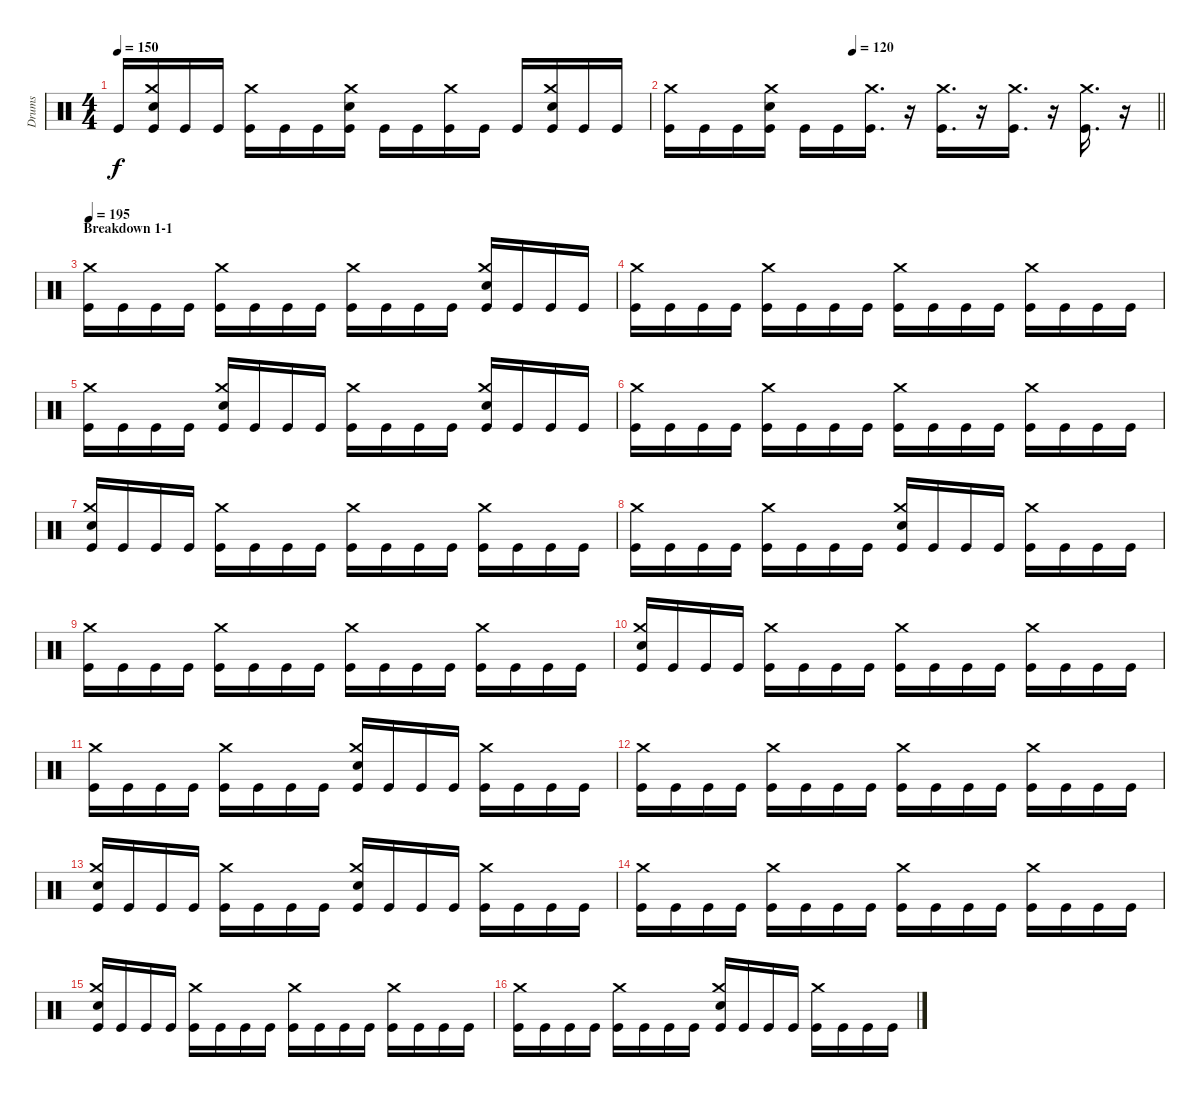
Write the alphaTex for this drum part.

\track ("Drums" "Drums") {instrument percussion}
\staff {score}
\articulation defaults
\ts (4 4)
\tempo 150
\clef neutral
\ks c "Kick (hit)".16{dy f}
("Crash medium (hit)" "Snare (hit) 2" "Kick (hit)").16 "Kick (hit)".16 "Kick (hit)".16 ("Crash medium (hit)" "Kick (hit)").16 "Kick (hit)".16 "Kick (hit)".16 ("Crash medium (hit)" "Snare (hit) 2" "Kick (hit)").16 "Kick (hit)".16 "Kick (hit)".16 ("Crash medium (hit)" "Kick (hit)").16 "Kick (hit)".16 "Kick (hit)".16 ("Crash medium (hit)" "Snare (hit) 2" "Kick (hit)").16 "Kick (hit)".16 "Kick (hit)".16 |
\tempo (120 0.375)
\barLineRight lightlight
("Crash medium (hit)" "Kick (hit)").16 "Kick (hit)".16 "Kick (hit)".16 ("Crash medium (hit)" "Snare (hit) 2" "Kick (hit)").16 "Kick (hit)".16 "Kick (hit)".16 ("Crash medium (hit)" "Kick (hit)").16{d} r.16 ("Crash medium (hit)" "Kick (hit)").16{d} r.16 ("Crash medium (hit)" "Kick (hit)").16{d} r.16 ("Crash medium (hit)" "Kick (hit)").16{d} r.16 |
\section ("" "Breakdown 1-1")
\tempo 195
("Crash medium (hit)" "Kick (hit)").16 "Kick (hit)".16 "Kick (hit)".16 "Kick (hit)".16 ("Crash medium (hit)" "Kick (hit)").16 "Kick (hit)".16 "Kick (hit)".16 "Kick (hit)".16 ("Crash medium (hit)" "Kick (hit)").16 "Kick (hit)".16 "Kick (hit)".16 "Kick (hit)".16 ("Crash medium (hit)" "Snare (hit) 2" "Kick (hit)").16 "Kick (hit)".16 "Kick (hit)".16 "Kick (hit)".16 |
("Crash medium (hit)" "Kick (hit)").16 "Kick (hit)".16 "Kick (hit)".16 "Kick (hit)".16 ("Crash medium (hit)" "Kick (hit)").16 "Kick (hit)".16 "Kick (hit)".16 "Kick (hit)".16 ("Crash medium (hit)" "Kick (hit)").16 "Kick (hit)".16 "Kick (hit)".16 "Kick (hit)".16 ("Crash medium (hit)" "Kick (hit)").16 "Kick (hit)".16 "Kick (hit)".16 "Kick (hit)".16 |
("Crash medium (hit)" "Kick (hit)").16 "Kick (hit)".16 "Kick (hit)".16 "Kick (hit)".16 ("Crash medium (hit)" "Snare (hit) 2" "Kick (hit)").16 "Kick (hit)".16 "Kick (hit)".16 "Kick (hit)".16 ("Crash medium (hit)" "Kick (hit)").16 "Kick (hit)".16 "Kick (hit)".16 "Kick (hit)".16 ("Crash medium (hit)" "Snare (hit) 2" "Kick (hit)").16 "Kick (hit)".16 "Kick (hit)".16 "Kick (hit)".16 |
("Crash medium (hit)" "Kick (hit)").16 "Kick (hit)".16 "Kick (hit)".16 "Kick (hit)".16 ("Crash medium (hit)" "Kick (hit)").16 "Kick (hit)".16 "Kick (hit)".16 "Kick (hit)".16 ("Crash medium (hit)" "Kick (hit)").16 "Kick (hit)".16 "Kick (hit)".16 "Kick (hit)".16 ("Crash medium (hit)" "Kick (hit)").16 "Kick (hit)".16 "Kick (hit)".16 "Kick (hit)".16 |
("Crash medium (hit)" "Snare (hit) 2" "Kick (hit)").16 "Kick (hit)".16 "Kick (hit)".16 "Kick (hit)".16 ("Crash medium (hit)" "Kick (hit)").16 "Kick (hit)".16 "Kick (hit)".16 "Kick (hit)".16 ("Crash medium (hit)" "Kick (hit)").16 "Kick (hit)".16 "Kick (hit)".16 "Kick (hit)".16 ("Crash medium (hit)" "Kick (hit)").16 "Kick (hit)".16 "Kick (hit)".16 "Kick (hit)".16 |
("Crash medium (hit)" "Kick (hit)").16 "Kick (hit)".16 "Kick (hit)".16 "Kick (hit)".16 ("Crash medium (hit)" "Kick (hit)").16 "Kick (hit)".16 "Kick (hit)".16 "Kick (hit)".16 ("Crash medium (hit)" "Snare (hit) 2" "Kick (hit)").16 "Kick (hit)".16 "Kick (hit)".16 "Kick (hit)".16 ("Crash medium (hit)" "Kick (hit)").16 "Kick (hit)".16 "Kick (hit)".16 "Kick (hit)".16 |
("Crash medium (hit)" "Kick (hit)").16 "Kick (hit)".16 "Kick (hit)".16 "Kick (hit)".16 ("Crash medium (hit)" "Kick (hit)").16 "Kick (hit)".16 "Kick (hit)".16 "Kick (hit)".16 ("Crash medium (hit)" "Kick (hit)").16 "Kick (hit)".16 "Kick (hit)".16 "Kick (hit)".16 ("Crash medium (hit)" "Kick (hit)").16 "Kick (hit)".16 "Kick (hit)".16 "Kick (hit)".16 |
("Crash medium (hit)" "Snare (hit) 2" "Kick (hit)").16 "Kick (hit)".16 "Kick (hit)".16 "Kick (hit)".16 ("Crash medium (hit)" "Kick (hit)").16 "Kick (hit)".16 "Kick (hit)".16 "Kick (hit)".16 ("Crash medium (hit)" "Kick (hit)").16 "Kick (hit)".16 "Kick (hit)".16 "Kick (hit)".16 ("Crash medium (hit)" "Kick (hit)").16 "Kick (hit)".16 "Kick (hit)".16 "Kick (hit)".16 |
("Crash medium (hit)" "Kick (hit)").16 "Kick (hit)".16 "Kick (hit)".16 "Kick (hit)".16 ("Crash medium (hit)" "Kick (hit)").16 "Kick (hit)".16 "Kick (hit)".16 "Kick (hit)".16 ("Crash medium (hit)" "Snare (hit) 2" "Kick (hit)").16 "Kick (hit)".16 "Kick (hit)".16 "Kick (hit)".16 ("Crash medium (hit)" "Kick (hit)").16 "Kick (hit)".16 "Kick (hit)".16 "Kick (hit)".16 |
("Crash medium (hit)" "Kick (hit)").16 "Kick (hit)".16 "Kick (hit)".16 "Kick (hit)".16 ("Crash medium (hit)" "Kick (hit)").16 "Kick (hit)".16 "Kick (hit)".16 "Kick (hit)".16 ("Crash medium (hit)" "Kick (hit)").16 "Kick (hit)".16 "Kick (hit)".16 "Kick (hit)".16 ("Crash medium (hit)" "Kick (hit)").16 "Kick (hit)".16 "Kick (hit)".16 "Kick (hit)".16 |
("Crash medium (hit)" "Snare (hit) 2" "Kick (hit)").16 "Kick (hit)".16 "Kick (hit)".16 "Kick (hit)".16 ("Crash medium (hit)" "Kick (hit)").16 "Kick (hit)".16 "Kick (hit)".16 "Kick (hit)".16 ("Crash medium (hit)" "Snare (hit) 2" "Kick (hit)").16 "Kick (hit)".16 "Kick (hit)".16 "Kick (hit)".16 ("Crash medium (hit)" "Kick (hit)").16 "Kick (hit)".16 "Kick (hit)".16 "Kick (hit)".16 |
("Crash medium (hit)" "Kick (hit)").16 "Kick (hit)".16 "Kick (hit)".16 "Kick (hit)".16 ("Crash medium (hit)" "Kick (hit)").16 "Kick (hit)".16 "Kick (hit)".16 "Kick (hit)".16 ("Crash medium (hit)" "Kick (hit)").16 "Kick (hit)".16 "Kick (hit)".16 "Kick (hit)".16 ("Crash medium (hit)" "Kick (hit)").16 "Kick (hit)".16 "Kick (hit)".16 "Kick (hit)".16 |
("Crash medium (hit)" "Snare (hit) 2" "Kick (hit)").16 "Kick (hit)".16 "Kick (hit)".16 "Kick (hit)".16 ("Crash medium (hit)" "Kick (hit)").16 "Kick (hit)".16 "Kick (hit)".16 "Kick (hit)".16 ("Crash medium (hit)" "Kick (hit)").16 "Kick (hit)".16 "Kick (hit)".16 "Kick (hit)".16 ("Crash medium (hit)" "Kick (hit)").16 "Kick (hit)".16 "Kick (hit)".16 "Kick (hit)".16 |
("Crash medium (hit)" "Kick (hit)").16 "Kick (hit)".16 "Kick (hit)".16 "Kick (hit)".16 ("Crash medium (hit)" "Kick (hit)").16 "Kick (hit)".16 "Kick (hit)".16 "Kick (hit)".16 ("Crash medium (hit)" "Snare (hit) 2" "Kick (hit)").16 "Kick (hit)".16 "Kick (hit)".16 "Kick (hit)".16 ("Crash medium (hit)" "Kick (hit)").16 "Kick (hit)".16 "Kick (hit)".16 "Kick (hit)".16
